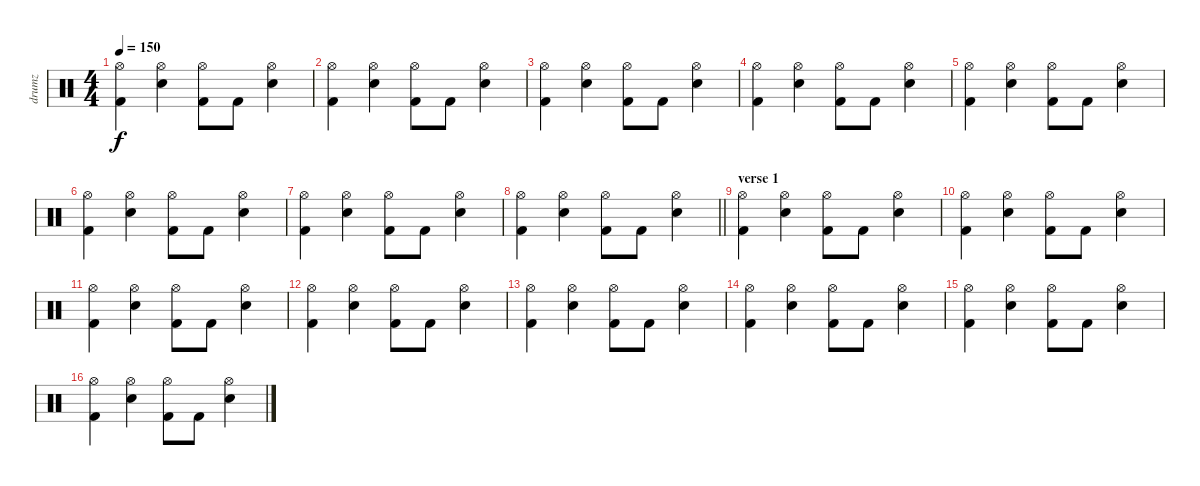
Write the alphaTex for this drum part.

\track ("drumz" "drumz") {instrument percussion}
\staff {score}
\articulation defaults
\ts (4 4)
\tempo 150
\clef neutral
\ks c
("Hi-Hat (open)" "Kick (hit) 2").4{dy f} ("Hi-Hat (open)" "Electric Snare (hit)").4 ("Hi-Hat (open)" "Kick (hit) 2").8 "Kick (hit) 2".8 ("Hi-Hat (open)" "Electric Snare (hit)").4 |
("Hi-Hat (open)" "Kick (hit) 2").4 ("Hi-Hat (open)" "Electric Snare (hit)").4 ("Hi-Hat (open)" "Kick (hit) 2").8 "Kick (hit) 2".8 ("Hi-Hat (open)" "Electric Snare (hit)").4 |
("Hi-Hat (open)" "Kick (hit) 2").4 ("Hi-Hat (open)" "Electric Snare (hit)").4 ("Hi-Hat (open)" "Kick (hit) 2").8 "Kick (hit) 2".8 ("Hi-Hat (open)" "Electric Snare (hit)").4 |
("Hi-Hat (open)" "Kick (hit) 2").4 ("Hi-Hat (open)" "Electric Snare (hit)").4 ("Hi-Hat (open)" "Kick (hit) 2").8 "Kick (hit) 2".8 ("Hi-Hat (open)" "Electric Snare (hit)").4 |
("Hi-Hat (open)" "Kick (hit) 2").4 ("Hi-Hat (open)" "Electric Snare (hit)").4 ("Hi-Hat (open)" "Kick (hit) 2").8 "Kick (hit) 2".8 ("Hi-Hat (open)" "Electric Snare (hit)").4 |
("Hi-Hat (open)" "Kick (hit) 2").4 ("Hi-Hat (open)" "Electric Snare (hit)").4 ("Hi-Hat (open)" "Kick (hit) 2").8 "Kick (hit) 2".8 ("Hi-Hat (open)" "Electric Snare (hit)").4 |
("Hi-Hat (open)" "Kick (hit) 2").4 ("Hi-Hat (open)" "Electric Snare (hit)").4 ("Hi-Hat (open)" "Kick (hit) 2").8 "Kick (hit) 2".8 ("Hi-Hat (open)" "Electric Snare (hit)").4 |
\barLineRight lightlight
("Hi-Hat (open)" "Kick (hit) 2").4 ("Hi-Hat (open)" "Electric Snare (hit)").4 ("Hi-Hat (open)" "Kick (hit) 2").8 "Kick (hit) 2".8 ("Hi-Hat (open)" "Electric Snare (hit)").4 |
\section ("" "verse 1")
("Hi-Hat (open)" "Kick (hit) 2").4 ("Hi-Hat (open)" "Electric Snare (hit)").4 ("Hi-Hat (open)" "Kick (hit) 2").8 "Kick (hit) 2".8 ("Hi-Hat (open)" "Electric Snare (hit)").4 |
("Hi-Hat (open)" "Kick (hit) 2").4 ("Hi-Hat (open)" "Electric Snare (hit)").4 ("Hi-Hat (open)" "Kick (hit) 2").8 "Kick (hit) 2".8 ("Hi-Hat (open)" "Electric Snare (hit)").4 |
("Hi-Hat (open)" "Kick (hit) 2").4 ("Hi-Hat (open)" "Electric Snare (hit)").4 ("Hi-Hat (open)" "Kick (hit) 2").8 "Kick (hit) 2".8 ("Hi-Hat (open)" "Electric Snare (hit)").4 |
("Hi-Hat (open)" "Kick (hit) 2").4 ("Hi-Hat (open)" "Electric Snare (hit)").4 ("Hi-Hat (open)" "Kick (hit) 2").8 "Kick (hit) 2".8 ("Hi-Hat (open)" "Electric Snare (hit)").4 |
("Hi-Hat (open)" "Kick (hit) 2").4 ("Hi-Hat (open)" "Electric Snare (hit)").4 ("Hi-Hat (open)" "Kick (hit) 2").8 "Kick (hit) 2".8 ("Hi-Hat (open)" "Electric Snare (hit)").4 |
("Hi-Hat (open)" "Kick (hit) 2").4 ("Hi-Hat (open)" "Electric Snare (hit)").4 ("Hi-Hat (open)" "Kick (hit) 2").8 "Kick (hit) 2".8 ("Hi-Hat (open)" "Electric Snare (hit)").4 |
("Hi-Hat (open)" "Kick (hit) 2").4 ("Hi-Hat (open)" "Electric Snare (hit)").4 ("Hi-Hat (open)" "Kick (hit) 2").8 "Kick (hit) 2".8 ("Hi-Hat (open)" "Electric Snare (hit)").4 |
("Hi-Hat (open)" "Kick (hit) 2").4 ("Hi-Hat (open)" "Electric Snare (hit)").4 ("Hi-Hat (open)" "Kick (hit) 2").8 "Kick (hit) 2".8 ("Hi-Hat (open)" "Electric Snare (hit)").4
